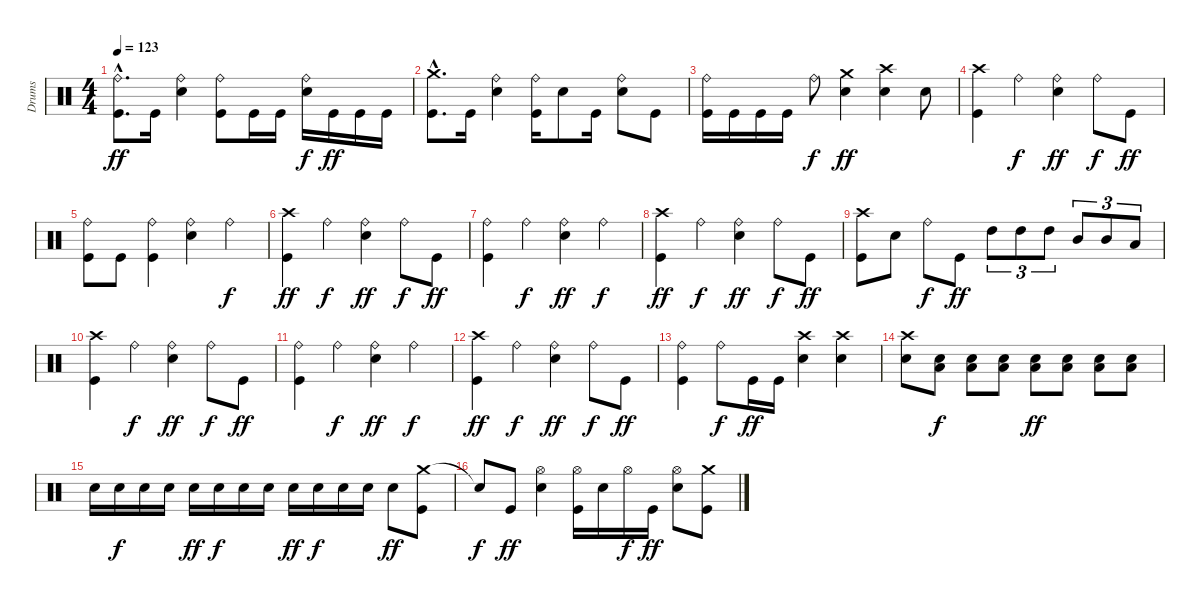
\track ("Drums" "Drums") {instrument percussion}
\staff {score}
\articulation defaults
\ts (4 4)
\tempo 123
\clef neutral
\ks c
("Ride (bell)"{hac} "Kick (hit)"{hac}).8{d dy ff} "Kick (hit)".16 ("Ride (bell)" "Electric Snare (hit)").4 ("Ride (bell)" "Kick (hit)").8 "Kick (hit)".16 "Kick (hit)".16 ("Ride (bell)" "Electric Snare (hit)").16{dy f} "Kick (hit)".16{dy ff} "Kick (hit)".16 "Kick (hit)".16 |
("Crash medium (hit)"{hac} "Kick (hit)"{hac}).8{d} "Kick (hit)".16 ("Ride (bell)" "Electric Snare (hit)").4 ("Ride (bell)" "Kick (hit)").16 "Electric Snare (hit)".8 "Kick (hit)".16 ("Ride (bell)" "Electric Snare (hit)").8 "Kick (hit)".8 |
("Ride (bell)" "Kick (hit)").16 "Kick (hit)".16 "Kick (hit)".16 "Kick (hit)".16 "Ride (bell)".8{dy f} ("Crash medium (hit)" "Electric Snare (hit)").4{dy ff} ("Crash high (hit)" "Electric Snare (hit)").4 "Electric Snare (hit)".8 |
("Crash high (hit)" "Kick (hit)").4 "Ride (bell)".4{dy f} ("Ride (bell)" "Electric Snare (hit)").4{dy ff} "Ride (bell)".8{dy f} "Kick (hit)".8{dy ff} |
("Ride (bell)" "Kick (hit)").8 "Kick (hit)".8 ("Ride (bell)" "Kick (hit)").4 ("Ride (bell)" "Electric Snare (hit)").4 "Ride (bell)".4{dy f} |
("Crash high (hit)" "Kick (hit)").4{dy ff} "Ride (bell)".4{dy f} ("Ride (bell)" "Electric Snare (hit)").4{dy ff} "Ride (bell)".8{dy f} "Kick (hit)".8{dy ff} |
("Ride (bell)" "Kick (hit)").4 "Ride (bell)".4{dy f} ("Ride (bell)" "Electric Snare (hit)").4{dy ff} "Ride (bell)".4{dy f} |
("Crash high (hit)" "Kick (hit)").4{dy ff} "Ride (bell)".4{dy f} ("Ride (bell)" "Electric Snare (hit)").4{dy ff} "Ride (bell)".8{dy f} "Kick (hit)".8{dy ff} |
("Crash high (hit)" "Kick (hit)").8 "Electric Snare (hit)".8 "Ride (bell)".8{dy f} "Kick (hit)".8{dy ff} "High Tom (hit)".8{tu (3 2)} "High Tom (hit)".8{tu (3 2)} "High Tom (hit)".8{tu (3 2)} "Mid Tom (hit)".8{tu (3 2)} "Mid Tom (hit)".8{tu (3 2)} "Low Tom (hit)".8{tu (3 2)} |
("Crash high (hit)" "Kick (hit)").4 "Ride (bell)".4{dy f} ("Ride (bell)" "Electric Snare (hit)").4{dy ff} "Ride (bell)".8{dy f} "Kick (hit)".8{dy ff} |
("Ride (bell)" "Kick (hit)").4 "Ride (bell)".4{dy f} ("Ride (bell)" "Electric Snare (hit)").4{dy ff} "Ride (bell)".4{dy f} |
("Crash high (hit)" "Kick (hit)").4{dy ff} "Ride (bell)".4{dy f} ("Ride (bell)" "Electric Snare (hit)").4{dy ff} "Ride (bell)".8{dy f} "Kick (hit)".8{dy ff} |
("Ride (bell)" "Kick (hit)").4 "Ride (bell)".8{dy f} "Kick (hit)".16{dy ff} "Kick (hit)".16 ("Crash high (hit)" "Electric Snare (hit)").4 ("Crash high (hit)" "Electric Snare (hit)").4 |
("Crash high (hit)" "Electric Snare (hit)").8 ("Low Floor Tom (hit)" "Electric Snare (hit)").8{dy f} ("Low Floor Tom (hit)" "Electric Snare (hit)").8 ("Low Floor Tom (hit)" "Electric Snare (hit)").8 ("Low Floor Tom (hit)" "Electric Snare (hit)").8{dy ff} ("Low Floor Tom (hit)" "Electric Snare (hit)").8 ("Low Floor Tom (hit)" "Electric Snare (hit)").8 ("Low Floor Tom (hit)" "Electric Snare (hit)").8 |
"Electric Snare (hit)".16 "Electric Snare (hit)".16{dy f} "Electric Snare (hit)".16 "Electric Snare (hit)".16 "Electric Snare (hit)".16{dy ff} "Electric Snare (hit)".16{dy f} "Electric Snare (hit)".16 "Electric Snare (hit)".16 "Electric Snare (hit)".16{dy ff} "Electric Snare (hit)".16{dy f} "Electric Snare (hit)".16 "Electric Snare (hit)".16 "Electric Snare (hit)".8{dy ff} ("Crash medium (hit)" "Kick (hit)").8 |
"Snare (hit)"{t}.8{dy f} "Kick (hit)".8{dy ff} ("Hi-Hat (open)" "Electric Snare (hit)").4 ("Hi-Hat (open)" "Kick (hit)").16 "Electric Snare (hit)".16 "Hi-Hat (open)".16{dy f} "Kick (hit)".16{dy ff} ("Hi-Hat (open)" "Electric Snare (hit)").8 ("Crash medium (hit)" "Kick (hit)").8
